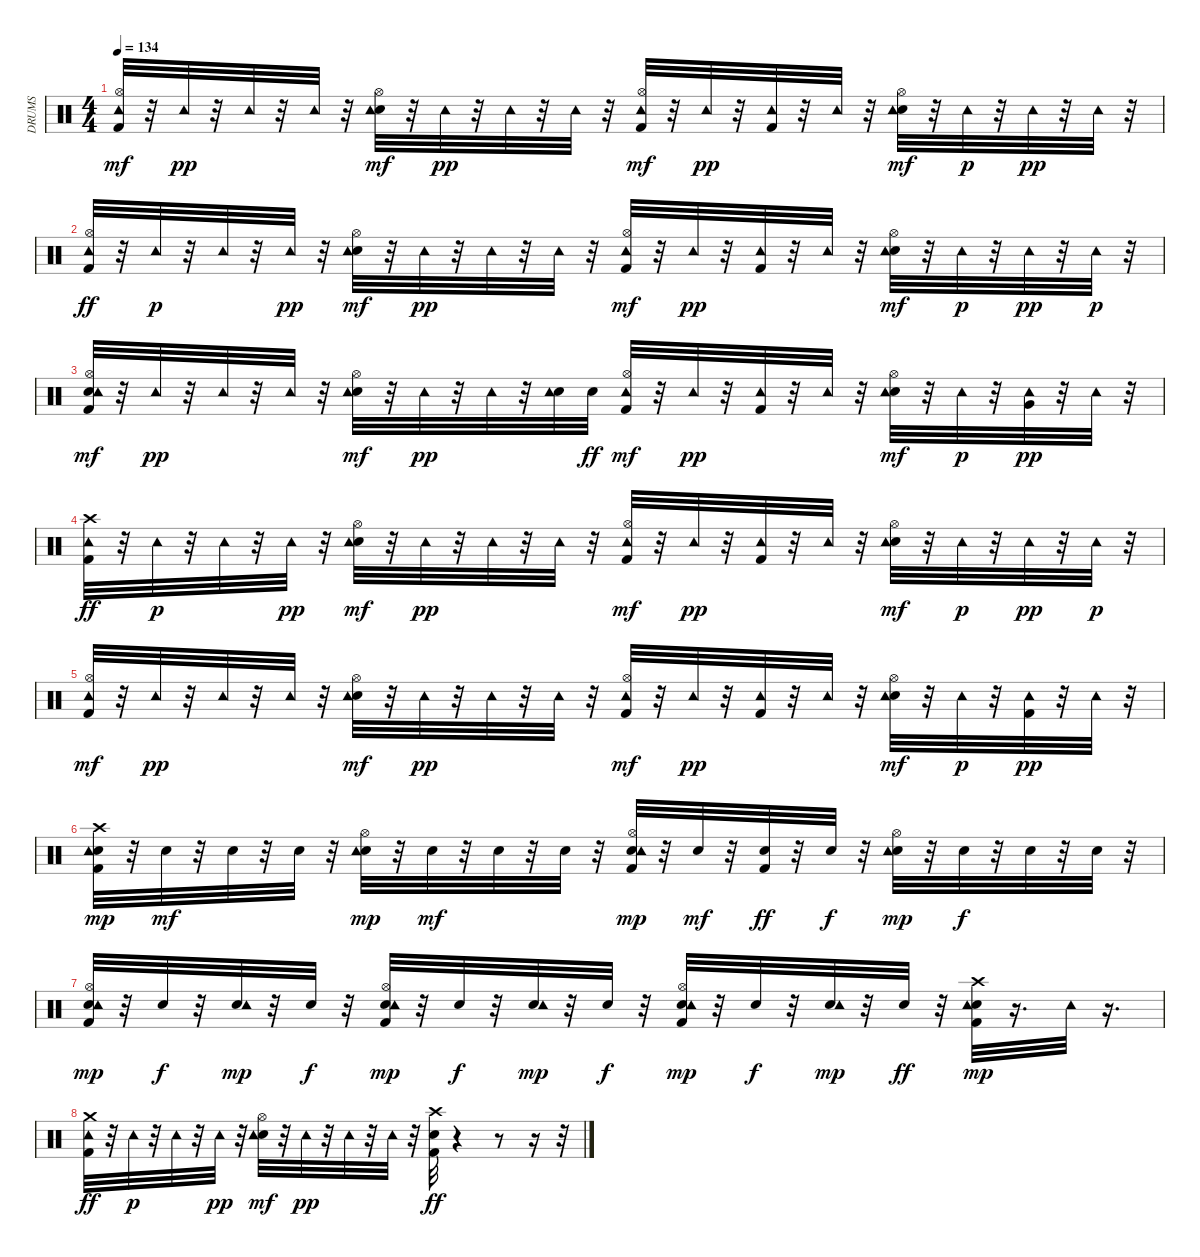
\track ("DRUMS" "DRUMS") {instrument percussion}
\staff {score}
\articulation defaults
\ts (4 4)
\tempo 134
\clef neutral
\ks c
("Kick (hit) 2" "Hi-Hat (open)" "Tambourine (hit)").32{dy mf} r.32 "Tambourine (hit)".32{dy pp} r.32 "Tambourine (hit)".32 r.32 "Tambourine (hit)".32 r.32 ("Snare (hit) 2" "Hi-Hat (open)" "Tambourine (hit)").32{dy mf} r.32 "Tambourine (hit)".32{dy pp} r.32 "Tambourine (hit)".32 r.32 "Tambourine (hit)".32 r.32 ("Kick (hit) 2" "Hi-Hat (open)" "Tambourine (hit)").32{dy mf} r.32 "Tambourine (hit)".32{dy pp} r.32 ("Kick (hit) 2" "Tambourine (hit)").32 r.32 "Tambourine (hit)".32 r.32 ("Snare (hit) 2" "Hi-Hat (open)" "Tambourine (hit)").32{dy mf} r.32 "Tambourine (hit)".32{dy p} r.32 "Tambourine (hit)".32{dy pp} r.32 "Tambourine (hit)".32 r.32 |
("Kick (hit) 2" "Hi-Hat (open)" "Tambourine (hit)").32{dy ff} r.32 "Tambourine (hit)".32{dy p} r.32 "Tambourine (hit)".32 r.32 "Tambourine (hit)".32{dy pp} r.32 ("Snare (hit) 2" "Hi-Hat (open)" "Tambourine (hit)").32{dy mf} r.32 "Tambourine (hit)".32{dy pp} r.32 "Tambourine (hit)".32 r.32 "Tambourine (hit)".32 r.32 ("Kick (hit) 2" "Hi-Hat (open)" "Tambourine (hit)").32{dy mf} r.32 "Tambourine (hit)".32{dy pp} r.32 ("Kick (hit) 2" "Tambourine (hit)").32 r.32 "Tambourine (hit)".32 r.32 ("Snare (hit) 2" "Hi-Hat (open)" "Tambourine (hit)").32{dy mf} r.32 "Tambourine (hit)".32{dy p} r.32 "Tambourine (hit)".32{dy pp} r.32 "Tambourine (hit)".32{dy p} r.32 |
("Kick (hit) 2" "Snare (hit) 2" "Hi-Hat (open)" "Tambourine (hit)").32{dy mf} r.32 "Tambourine (hit)".32{dy pp} r.32 "Tambourine (hit)".32 r.32 "Tambourine (hit)".32 r.32 ("Snare (hit) 2" "Hi-Hat (open)" "Tambourine (hit)").32{dy mf} r.32 "Tambourine (hit)".32{dy pp} r.32 "Tambourine (hit)".32 r.32 ("Snare (hit) 2" "Tambourine (hit)").32 "Snare (hit) 2".32{dy ff} ("Kick (hit) 2" "Hi-Hat (open)" "Tambourine (hit)").32{dy mf} r.32 "Tambourine (hit)".32{dy pp} r.32 ("Kick (hit) 2" "Tambourine (hit)").32 r.32 "Tambourine (hit)".32 r.32 ("Snare (hit) 2" "Hi-Hat (open)" "Tambourine (hit)").32{dy mf} r.32 "Tambourine (hit)".32{dy p} r.32 ("Very Low Tom (hit)" "Tambourine (hit)").32{dy pp} r.32 "Tambourine (hit)".32 r.32 |
("Kick (hit) 2" "Crash high (hit)" "Tambourine (hit)").32{dy ff} r.32 "Tambourine (hit)".32{dy p} r.32 "Tambourine (hit)".32 r.32 "Tambourine (hit)".32{dy pp} r.32 ("Snare (hit) 2" "Hi-Hat (open)" "Tambourine (hit)").32{dy mf} r.32 "Tambourine (hit)".32{dy pp} r.32 "Tambourine (hit)".32 r.32 "Tambourine (hit)".32 r.32 ("Kick (hit) 2" "Hi-Hat (open)" "Tambourine (hit)").32{dy mf} r.32 "Tambourine (hit)".32{dy pp} r.32 ("Kick (hit) 2" "Tambourine (hit)").32 r.32 "Tambourine (hit)".32 r.32 ("Snare (hit) 2" "Hi-Hat (open)" "Tambourine (hit)").32{dy mf} r.32 "Tambourine (hit)".32{dy p} r.32 "Tambourine (hit)".32{dy pp} r.32 "Tambourine (hit)".32{dy p} r.32 |
("Kick (hit) 2" "Hi-Hat (open)" "Tambourine (hit)").32{dy mf} r.32 "Tambourine (hit)".32{dy pp} r.32 "Tambourine (hit)".32 r.32 "Tambourine (hit)".32 r.32 ("Snare (hit) 2" "Hi-Hat (open)" "Tambourine (hit)").32{dy mf} r.32 "Tambourine (hit)".32{dy pp} r.32 "Tambourine (hit)".32 r.32 "Tambourine (hit)".32 r.32 ("Kick (hit) 2" "Hi-Hat (open)" "Tambourine (hit)").32{dy mf} r.32 "Tambourine (hit)".32{dy pp} r.32 ("Kick (hit) 2" "Tambourine (hit)").32 r.32 "Tambourine (hit)".32 r.32 ("Snare (hit) 2" "Hi-Hat (open)" "Tambourine (hit)").32{dy mf} r.32 "Tambourine (hit)".32{dy p} r.32 ("Kick (hit) 2" "Tambourine (hit)").32{dy pp} r.32 "Tambourine (hit)".32 r.32 |
("Kick (hit) 2" "Snare (hit) 2" "Crash high (hit)" "Tambourine (hit)").32{dy mp} r.32 "Snare (hit) 2".32{dy mf} r.32 "Snare (hit) 2".32 r.32 "Snare (hit) 2".32 r.32 ("Snare (hit) 2" "Hi-Hat (open)" "Tambourine (hit)").32{dy mp} r.32 "Snare (hit) 2".32{dy mf} r.32 "Snare (hit) 2".32 r.32 "Snare (hit) 2".32 r.32 ("Kick (hit) 2" "Snare (hit) 2" "Hi-Hat (open)" "Tambourine (hit)").32{dy mp} r.32 "Snare (hit) 2".32{dy mf} r.32 ("Kick (hit) 2" "Snare (hit) 2").32{dy ff} r.32 "Snare (hit) 2".32{dy f} r.32 ("Snare (hit) 2" "Hi-Hat (open)" "Tambourine (hit)").32{dy mp} r.32 "Snare (hit) 2".32{dy f} r.32 "Snare (hit) 2".32 r.32 "Snare (hit) 2".32 r.32 |
("Kick (hit) 2" "Snare (hit) 2" "Hi-Hat (open)" "Tambourine (hit)").32{dy mp} r.32 "Snare (hit) 2".32{dy f} r.32 ("Snare (hit) 2" "Tambourine (hit)").32{dy mp} r.32 "Snare (hit) 2".32{dy f} r.32 ("Kick (hit) 2" "Snare (hit) 2" "Hi-Hat (open)" "Tambourine (hit)").32{dy mp} r.32 "Snare (hit) 2".32{dy f} r.32 ("Snare (hit) 2" "Tambourine (hit)").32{dy mp} r.32 "Snare (hit) 2".32{dy f} r.32 ("Kick (hit) 2" "Snare (hit) 2" "Hi-Hat (open)" "Tambourine (hit)").32{dy mp} r.32 "Snare (hit) 2".32{dy f} r.32 ("Snare (hit) 2" "Tambourine (hit)").32{dy mp} r.32 "Snare (hit) 2".32{dy ff} r.32 ("Kick (hit) 2" "Snare (hit) 2" "Crash high (hit)" "Tambourine (hit)").32{dy mp} r.16{d} "Tambourine (hit)".32 r.16{d} |
("Kick (hit) 2" "Crash medium (hit)" "Tambourine (hit)").32{dy ff} r.32 "Tambourine (hit)".32{dy p} r.32 "Tambourine (hit)".32 r.32 "Tambourine (hit)".32{dy pp} r.32 ("Snare (hit) 2" "Hi-Hat (open)" "Tambourine (hit)").32{dy mf} r.32 "Tambourine (hit)".32{dy pp} r.32 "Tambourine (hit)".32 r.32 "Tambourine (hit)".32 r.32 ("Kick (hit) 2" "Snare (hit) 2" "Crash high (hit)").32{dy ff} r.4 r.8 r.16 r.32
